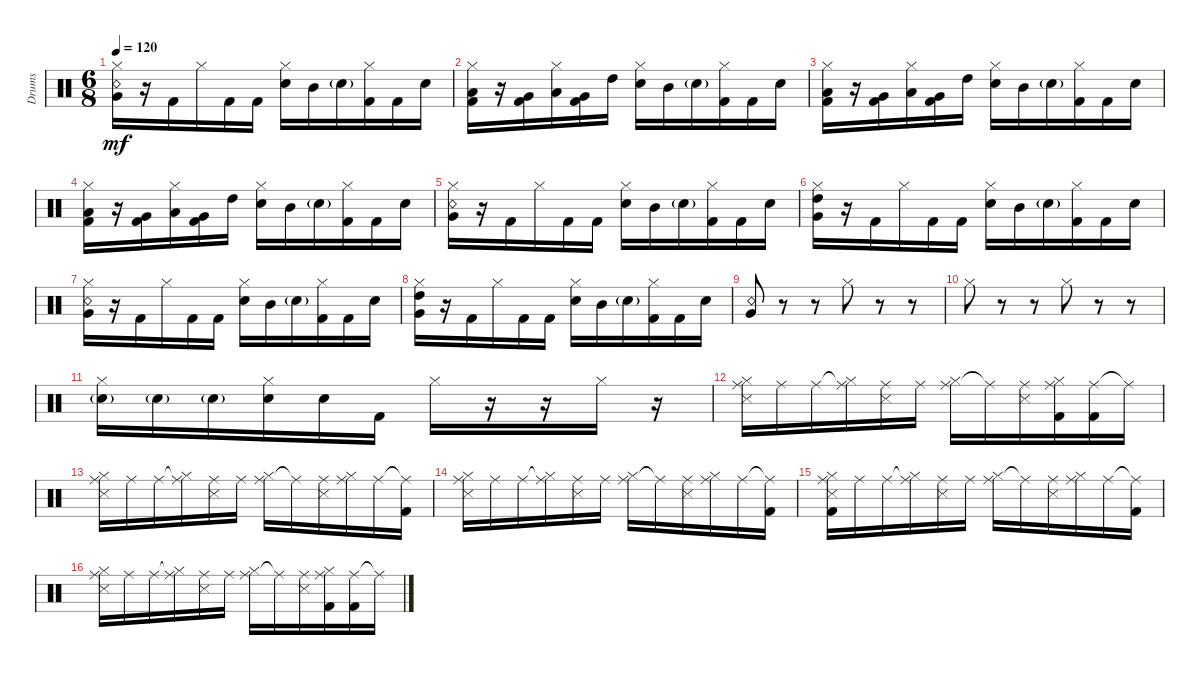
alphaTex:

\defaultSystemsLayout 4
\bracketExtendMode groupsimilarinstruments
\otherSystemsTrackNameOrientation horizontal
\track ("Drumkit" "Drums") {instrument percussion}
\staff {score}
\articulation defaults
\ts (6 8)
\tempo 120
\clef neutral
\ks c
("Very Low Tom (hit)" "Snare (rim shot)" "Hi-Hat (closed)").16{dy mf} r.16 "Kick (hit) 2".16 "Hi-Hat (closed)".16 "Kick (hit) 2".16 "Kick (hit) 2".16 ("Snare (hit) 2" "Hi-Hat (closed)").16 "Mid Tom (hit)".16 "Snare (hit) 2"{g}.16 ("Kick (hit) 2" "Hi-Hat (closed)").16 "Kick (hit) 2".16 "Snare (hit) 2".16 |
("Kick (hit) 2" "Low Tom (hit)" "Hi-Hat (closed)").16 r.16 ("Kick (hit) 2" "Very Low Tom (hit)").16 ("Hi-Hat (closed)" "Low Tom (hit)").16 ("Kick (hit) 2" "Very Low Tom (hit)").16 "High Tom (hit)".16 ("Snare (hit) 2" "Hi-Hat (closed)").16 "Mid Tom (hit)".16 "Snare (hit) 2"{g}.16 ("Kick (hit) 2" "Hi-Hat (closed)").16 "Kick (hit) 2".16 "Snare (hit) 2".16 |
("Kick (hit) 2" "Low Tom (hit)" "Hi-Hat (closed)").16 r.16 ("Kick (hit) 2" "Very Low Tom (hit)").16 ("Hi-Hat (closed)" "Low Tom (hit)").16 ("Kick (hit) 2" "Very Low Tom (hit)").16 "High Tom (hit)".16 ("Snare (hit) 2" "Hi-Hat (closed)").16 "Mid Tom (hit)".16 "Snare (hit) 2"{g}.16 ("Kick (hit) 2" "Hi-Hat (closed)").16 "Kick (hit) 2".16 "Snare (hit) 2".16 |
("Kick (hit) 2" "Low Tom (hit)" "Hi-Hat (closed)").16 r.16 ("Kick (hit) 2" "Very Low Tom (hit)").16 ("Hi-Hat (closed)" "Low Tom (hit)").16 ("Kick (hit) 2" "Very Low Tom (hit)").16 "High Tom (hit)".16 ("Snare (hit) 2" "Hi-Hat (closed)").16 "Mid Tom (hit)".16 "Snare (hit) 2"{g}.16 ("Kick (hit) 2" "Hi-Hat (closed)").16 "Kick (hit) 2".16 "Snare (hit) 2".16 |
("Very Low Tom (hit)" "Snare (rim shot)" "Hi-Hat (closed)").16 r.16 "Kick (hit) 2".16 "Hi-Hat (closed)".16 "Kick (hit) 2".16 "Kick (hit) 2".16 ("Snare (hit) 2" "Hi-Hat (closed)").16 "Mid Tom (hit)".16 "Snare (hit) 2"{g}.16 ("Kick (hit) 2" "Hi-Hat (closed)").16 "Kick (hit) 2".16 "Snare (hit) 2".16 |
("Very Low Tom (hit)" "Hi-Hat (closed)" "High Tom (hit)").16 r.16 "Kick (hit) 2".16 "Hi-Hat (closed)".16 "Kick (hit) 2".16 "Kick (hit) 2".16 ("Snare (hit) 2" "Hi-Hat (closed)").16 "Mid Tom (hit)".16 "Snare (hit) 2"{g}.16 ("Kick (hit) 2" "Hi-Hat (closed)").16 "Kick (hit) 2".16 "Snare (hit) 2".16 |
("Very Low Tom (hit)" "Snare (rim shot)" "Hi-Hat (closed)").16 r.16 "Kick (hit) 2".16 "Hi-Hat (closed)".16 "Kick (hit) 2".16 "Kick (hit) 2".16 ("Snare (hit) 2" "Hi-Hat (closed)").16 "Mid Tom (hit)".16 "Snare (hit) 2"{g}.16 ("Kick (hit) 2" "Hi-Hat (closed)").16 "Kick (hit) 2".16 "Snare (hit) 2".16 |
("Very Low Tom (hit)" "Hi-Hat (closed)" "High Tom (hit)").16 r.16 "Kick (hit) 2".16 "Hi-Hat (closed)".16 "Kick (hit) 2".16 "Kick (hit) 2".16 ("Snare (hit) 2" "Hi-Hat (closed)").16 "Mid Tom (hit)".16 "Snare (hit) 2"{g}.16 ("Kick (hit) 2" "Hi-Hat (closed)").16 "Kick (hit) 2".16 "Snare (hit) 2".16 |
("Very Low Tom (hit)" "Snare (rim shot)").8 r.8 r.8 "Hi-Hat (closed)".8 r.8 r.8 |
"Hi-Hat (closed)".8 r.8 r.8 "Hi-Hat (closed)".8 r.8 r.8 |
("Hi-Hat (closed)" "Snare (hit) 2"{g}).16 "Snare (hit) 2"{g}.16 "Snare (hit) 2"{g}.16 ("Snare (hit) 2" "Hi-Hat (closed)").16 "Snare (hit) 2".16 "Kick (hit) 2".16 "Hi-Hat (closed)".16 r.16 r.16 "Hi-Hat (closed)".16 r.16 |
("Snare (side stick) 3" "Ride (middle)" "Hi-Hat (closed)").16 "Ride (middle)".16 "Ride (middle)".16 ("Ride (middle)"{t} "Hi-Hat (closed)").16 ("Snare (side stick) 3" "Ride (middle)").16 "Ride (middle)".16 ("Ride (middle)" "Hi-Hat (closed)").16 "Ride (middle)"{t}.16 ("Snare (side stick) 3" "Ride (middle)").16 ("Ride (middle)" "Kick (hit) 2" "Hi-Hat (closed)").16 ("Ride (middle)" "Kick (hit) 2").16 "Ride (middle)"{t}.16 |
("Snare (side stick) 3" "Ride (middle)" "Hi-Hat (closed)").16 "Ride (middle)".16 "Ride (middle)".16 ("Ride (middle)"{t} "Hi-Hat (closed)").16 ("Snare (side stick) 3" "Ride (middle)").16 "Ride (middle)".16 ("Ride (middle)" "Hi-Hat (closed)").16 "Ride (middle)"{t}.16 ("Snare (side stick) 3" "Ride (middle)").16 ("Ride (middle)" "Hi-Hat (closed)").16 "Ride (middle)".16 ("Ride (middle)"{t} "Kick (hit) 2").16 |
("Snare (side stick) 3" "Ride (middle)" "Hi-Hat (closed)").16 "Ride (middle)".16 "Ride (middle)".16 ("Ride (middle)"{t} "Hi-Hat (closed)").16 ("Snare (side stick) 3" "Ride (middle)").16 "Ride (middle)".16 ("Ride (middle)" "Hi-Hat (closed)").16 "Ride (middle)"{t}.16 ("Snare (side stick) 3" "Ride (middle)").16 ("Ride (middle)" "Hi-Hat (closed)").16 "Ride (middle)".16 ("Ride (middle)"{t} "Kick (hit) 2").16 |
("Snare (side stick) 3" "Ride (middle)" "Hi-Hat (closed)" "Kick (hit) 2").16 "Ride (middle)".16 "Ride (middle)".16 ("Ride (middle)"{t} "Hi-Hat (closed)").16 ("Snare (side stick) 3" "Ride (middle)").16 "Ride (middle)".16 ("Ride (middle)" "Hi-Hat (closed)").16 "Ride (middle)"{t}.16 ("Snare (side stick) 3" "Ride (middle)").16 ("Ride (middle)" "Hi-Hat (closed)").16 "Ride (middle)".16 ("Ride (middle)"{t} "Kick (hit) 2").16 |
("Snare (side stick) 3" "Ride (middle)" "Hi-Hat (closed)").16 "Ride (middle)".16 "Ride (middle)".16 ("Ride (middle)"{t} "Hi-Hat (closed)").16 ("Snare (side stick) 3" "Ride (middle)").16 "Ride (middle)".16 ("Ride (middle)" "Hi-Hat (closed)").16 "Ride (middle)"{t}.16 ("Snare (side stick) 3" "Ride (middle)").16 ("Ride (middle)" "Kick (hit) 2" "Hi-Hat (closed)").16 ("Ride (middle)" "Kick (hit) 2").16 "Ride (middle)"{t}.16
